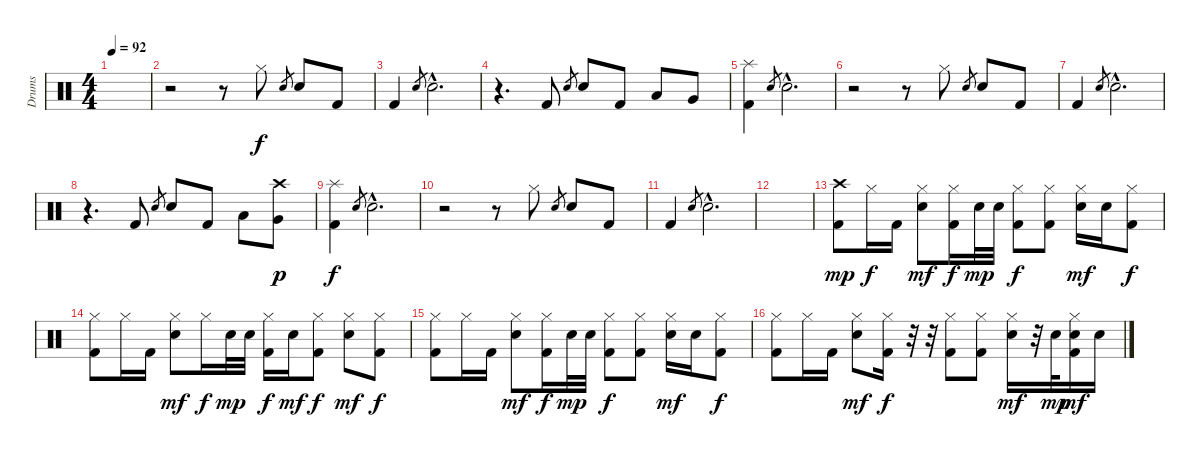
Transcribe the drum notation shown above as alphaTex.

\track ("Drums" "Drums") {instrument percussion}
\staff {score}
\articulation defaults
\ts (4 4)
\tempo 92
\clef neutral
\ks c
|
r.2 r.8 "Hi-Hat (closed)".8 "Snare (hit) 2".8{gr} "Snare (hit) 2".8 "Kick (hit) 2".8 |
"Kick (hit) 2".4 "Snare (hit) 2".8{gr} "Snare (hit) 2"{hac}.2{d} |
r.4{d} "Kick (hit) 2".8 "Snare (hit) 2".8{gr} "Snare (hit) 2".8 "Kick (hit) 2".8 "Low Tom (hit)".8 "Very Low Tom (hit)".8 |
("Splash (hit)" "Kick (hit) 2").4 "Snare (hit) 2".8{gr} "Snare (hit) 2"{hac}.2{d} |
r.2 r.8 "Hi-Hat (closed)".8 "Snare (hit) 2".8{gr} "Snare (hit) 2".8 "Kick (hit) 2".8 |
"Kick (hit) 2".4 "Snare (hit) 2".8{gr} "Snare (hit) 2"{hac}.2{d} |
r.4{d} "Kick (hit) 2".8 "Snare (hit) 2".8{gr} "Snare (hit) 2".8 "Kick (hit) 2".8 "Low Tom (hit)".8 ("Crash high (hit)" "Very Low Tom (hit)").8{dy p} |
("Splash (hit)" "Kick (hit) 2").4{dy f} "Snare (hit) 2".8{gr} "Snare (hit) 2"{hac}.2{d} |
r.2 r.8 "Hi-Hat (closed)".8 "Snare (hit) 2".8{gr} "Snare (hit) 2".8 "Kick (hit) 2".8 |
"Kick (hit) 2".4 "Snare (hit) 2".8{gr} "Snare (hit) 2"{hac}.2{d} |
|
("Crash high (hit)" "Kick (hit) 2").8{dy mp} "Hi-Hat (closed)".16{dy f} "Kick (hit) 2".16 ("Hi-Hat (closed)" "Snare (hit) 2").8{dy mf} ("Hi-Hat (closed)" "Kick (hit) 2").16{dy f} "Snare (hit) 2".32{dy mp} "Snare (hit) 2".32 ("Hi-Hat (closed)" "Kick (hit) 2").8{dy f} ("Hi-Hat (closed)" "Kick (hit) 2").8 ("Hi-Hat (closed)" "Snare (hit) 2").16{dy mf} "Snare (hit) 2".16 ("Hi-Hat (closed)" "Kick (hit) 2").8{dy f} |
("Hi-Hat (closed)" "Kick (hit) 2").8 "Hi-Hat (closed)".16 "Kick (hit) 2".16 ("Hi-Hat (closed)" "Snare (hit) 2").8{dy mf} "Hi-Hat (closed)".16{dy f} "Snare (hit) 2".32{dy mp} "Snare (hit) 2".32 ("Hi-Hat (closed)" "Kick (hit) 2").16{dy f} "Snare (hit) 2".16{dy mf} ("Hi-Hat (closed)" "Kick (hit) 2").8{dy f} ("Hi-Hat (closed)" "Snare (hit) 2").8{dy mf} ("Hi-Hat (closed)" "Kick (hit) 2").8{dy f} |
("Hi-Hat (closed)" "Kick (hit) 2").8 "Hi-Hat (closed)".16 "Kick (hit) 2".16 ("Hi-Hat (closed)" "Snare (hit) 2").8{dy mf} ("Hi-Hat (closed)" "Kick (hit) 2").16{dy f} "Snare (hit) 2".32{dy mp} "Snare (hit) 2".32 ("Hi-Hat (closed)" "Kick (hit) 2").8{dy f} ("Hi-Hat (closed)" "Kick (hit) 2").8 ("Hi-Hat (closed)" "Snare (hit) 2").16{dy mf} "Snare (hit) 2".16 ("Hi-Hat (closed)" "Kick (hit) 2").8{dy f} |
("Hi-Hat (closed)" "Kick (hit) 2").8 "Hi-Hat (closed)".16 "Kick (hit) 2".16 ("Hi-Hat (closed)" "Snare (hit) 2").8{dy mf} ("Hi-Hat (closed)" "Kick (hit) 2").16{dy f} r.32 r.32 ("Hi-Hat (closed)" "Kick (hit) 2").8 ("Hi-Hat (closed)" "Kick (hit) 2").8 ("Hi-Hat (closed)" "Snare (hit) 2").16{dy mf} r.32 "Snare (hit) 2".32{dy mp} ("Hi-Hat (closed)" "Snare (hit) 2" "Kick (hit) 2").16{dy mf} "Snare (hit) 2".16
